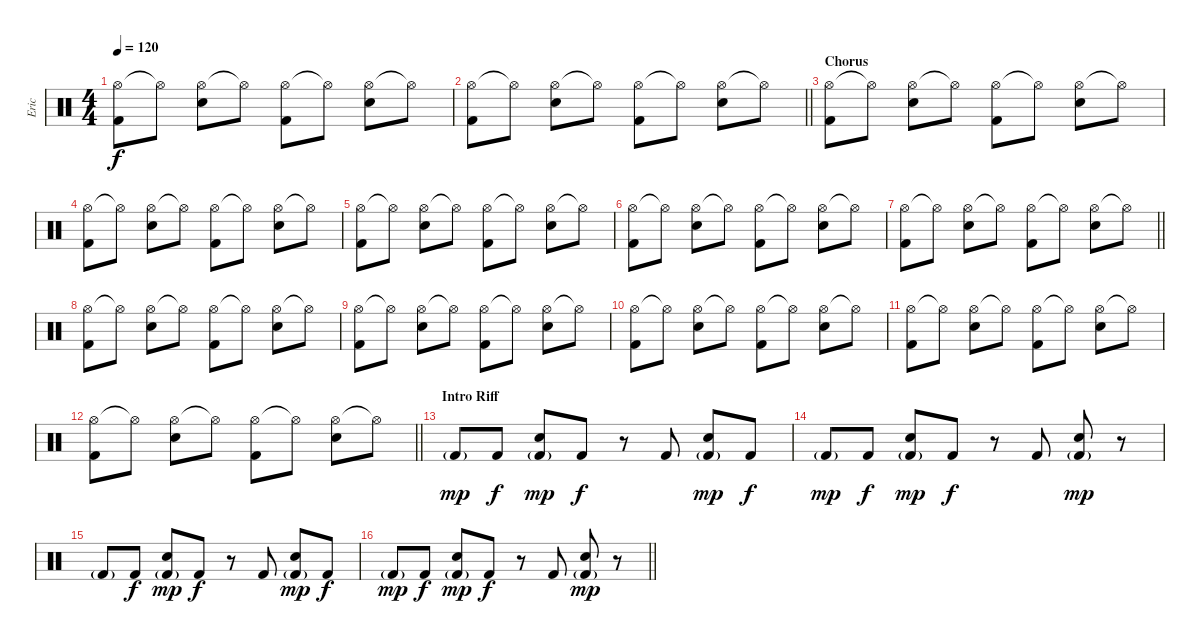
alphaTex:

\track ("Eric" "Eric") {instrument percussion}
\staff {score}
\articulation defaults
\ts (4 4)
\tempo 120
\clef neutral
\ks c
("Hi-Hat (open)" "Kick (hit) 2").8{dy f} "Hi-Hat (open)"{t}.8 ("Hi-Hat (open)" "Snare (hit) 2").8 "Hi-Hat (open)"{t}.8 ("Hi-Hat (open)" "Kick (hit) 2").8 "Hi-Hat (open)"{t}.8 ("Hi-Hat (open)" "Snare (hit) 2").8 "Hi-Hat (open)"{t}.8 |
\barLineRight lightlight
("Hi-Hat (open)" "Kick (hit) 2").8 "Hi-Hat (open)"{t}.8 ("Hi-Hat (open)" "Snare (hit) 2").8 "Hi-Hat (open)"{t}.8 ("Hi-Hat (open)" "Kick (hit) 2").8 "Hi-Hat (open)"{t}.8 ("Hi-Hat (open)" "Snare (hit) 2").8 "Hi-Hat (open)"{t}.8 |
\section ("" "Chorus")
("Hi-Hat (open)" "Kick (hit) 2").8 "Hi-Hat (open)"{t}.8 ("Hi-Hat (open)" "Snare (hit) 2").8 "Hi-Hat (open)"{t}.8 ("Hi-Hat (open)" "Kick (hit) 2").8 "Hi-Hat (open)"{t}.8 ("Hi-Hat (open)" "Snare (hit) 2").8 "Hi-Hat (open)"{t}.8 |
("Hi-Hat (open)" "Kick (hit) 2").8 "Hi-Hat (open)"{t}.8 ("Hi-Hat (open)" "Snare (hit) 2").8 "Hi-Hat (open)"{t}.8 ("Hi-Hat (open)" "Kick (hit) 2").8 "Hi-Hat (open)"{t}.8 ("Hi-Hat (open)" "Snare (hit) 2").8 "Hi-Hat (open)"{t}.8 |
("Hi-Hat (open)" "Kick (hit) 2").8 "Hi-Hat (open)"{t}.8 ("Hi-Hat (open)" "Snare (hit) 2").8 "Hi-Hat (open)"{t}.8 ("Hi-Hat (open)" "Kick (hit) 2").8 "Hi-Hat (open)"{t}.8 ("Hi-Hat (open)" "Snare (hit) 2").8 "Hi-Hat (open)"{t}.8 |
("Hi-Hat (open)" "Kick (hit) 2").8 "Hi-Hat (open)"{t}.8 ("Hi-Hat (open)" "Snare (hit) 2").8 "Hi-Hat (open)"{t}.8 ("Hi-Hat (open)" "Kick (hit) 2").8 "Hi-Hat (open)"{t}.8 ("Hi-Hat (open)" "Snare (hit) 2").8 "Hi-Hat (open)"{t}.8 |
\barLineRight lightlight
("Hi-Hat (open)" "Kick (hit) 2").8 "Hi-Hat (open)"{t}.8 ("Hi-Hat (open)" "Snare (hit) 2").8 "Hi-Hat (open)"{t}.8 ("Hi-Hat (open)" "Kick (hit) 2").8 "Hi-Hat (open)"{t}.8 ("Hi-Hat (open)" "Snare (hit) 2").8 "Hi-Hat (open)"{t}.8 |
\section ("" "")
("Hi-Hat (open)" "Kick (hit) 2").8 "Hi-Hat (open)"{t}.8 ("Hi-Hat (open)" "Snare (hit) 2").8 "Hi-Hat (open)"{t}.8 ("Hi-Hat (open)" "Kick (hit) 2").8 "Hi-Hat (open)"{t}.8 ("Hi-Hat (open)" "Snare (hit) 2").8 "Hi-Hat (open)"{t}.8 |
("Hi-Hat (open)" "Kick (hit) 2").8 "Hi-Hat (open)"{t}.8 ("Hi-Hat (open)" "Snare (hit) 2").8 "Hi-Hat (open)"{t}.8 ("Hi-Hat (open)" "Kick (hit) 2").8 "Hi-Hat (open)"{t}.8 ("Hi-Hat (open)" "Snare (hit) 2").8 "Hi-Hat (open)"{t}.8 |
("Hi-Hat (open)" "Kick (hit) 2").8 "Hi-Hat (open)"{t}.8 ("Hi-Hat (open)" "Snare (hit) 2").8 "Hi-Hat (open)"{t}.8 ("Hi-Hat (open)" "Kick (hit) 2").8 "Hi-Hat (open)"{t}.8 ("Hi-Hat (open)" "Snare (hit) 2").8 "Hi-Hat (open)"{t}.8 |
("Hi-Hat (open)" "Kick (hit) 2").8 "Hi-Hat (open)"{t}.8 ("Hi-Hat (open)" "Snare (hit) 2").8 "Hi-Hat (open)"{t}.8 ("Hi-Hat (open)" "Kick (hit) 2").8 "Hi-Hat (open)"{t}.8 ("Hi-Hat (open)" "Snare (hit) 2").8 "Hi-Hat (open)"{t}.8 |
\barLineRight lightlight
("Hi-Hat (open)" "Kick (hit) 2").8 "Hi-Hat (open)"{t}.8 ("Hi-Hat (open)" "Snare (hit) 2").8 "Hi-Hat (open)"{t}.8 ("Hi-Hat (open)" "Kick (hit) 2").8 "Hi-Hat (open)"{t}.8 ("Hi-Hat (open)" "Snare (hit) 2").8 "Hi-Hat (open)"{t}.8 |
\section ("" "Intro Riff")
"Kick (hit) 2"{g}.8{dy mp} "Kick (hit) 2".8{dy f} ("Snare (hit) 2" "Kick (hit) 2"{g}).8{dy mp} "Kick (hit) 2".8{dy f} r.8 "Kick (hit) 2".8 ("Snare (hit) 2" "Kick (hit) 2"{g}).8{dy mp} "Kick (hit) 2".8{dy f} |
"Kick (hit) 2"{g}.8{dy mp} "Kick (hit) 2".8{dy f} ("Snare (hit) 2" "Kick (hit) 2"{g}).8{dy mp} "Kick (hit) 2".8{dy f} r.8 "Kick (hit) 2".8 ("Snare (hit) 2" "Kick (hit) 2"{g}).8{dy mp} r.8 |
"Kick (hit) 2"{g}.8 "Kick (hit) 2".8{dy f} ("Snare (hit) 2" "Kick (hit) 2"{g}).8{dy mp} "Kick (hit) 2".8{dy f} r.8 "Kick (hit) 2".8 ("Snare (hit) 2" "Kick (hit) 2"{g}).8{dy mp} "Kick (hit) 2".8{dy f} |
\barLineRight lightlight "Kick (hit) 2"{g}.8{dy mp} "Kick (hit) 2".8{dy f}
("Snare (hit) 2" "Kick (hit) 2"{g}).8{dy mp} "Kick (hit) 2".8{dy f} r.8 "Kick (hit) 2".8 ("Snare (hit) 2" "Kick (hit) 2"{g}).8{dy mp} r.8
